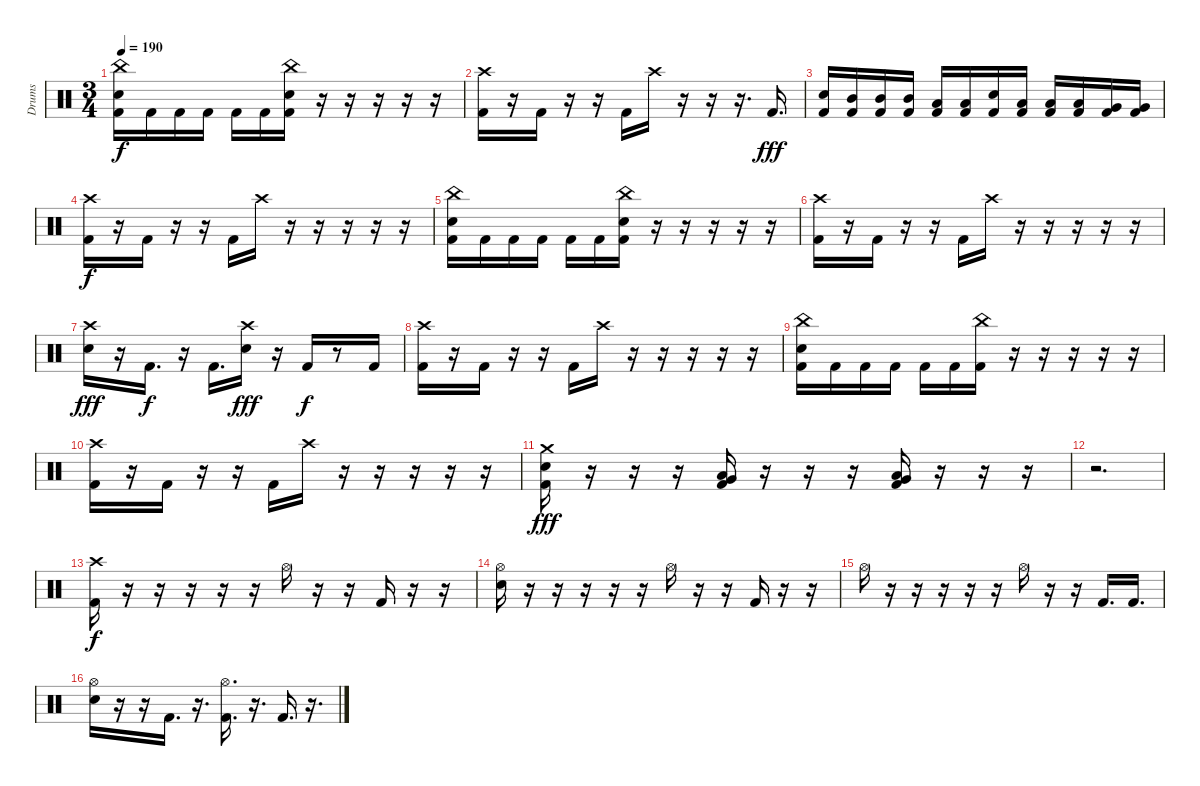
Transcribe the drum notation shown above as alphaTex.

\track ("Drums" "Drums") {instrument percussion}
\staff {score}
\articulation defaults
\ts (3 4)
\tempo 190
\clef neutral
\ks c
("China (hit)" "Electric Snare (hit)" "Kick (hit) 2").16{dy f} "Kick (hit) 2".16 "Kick (hit) 2".16 "Kick (hit) 2".16 "Kick (hit) 2".16 "Kick (hit) 2".16 ("China (hit)" "Electric Snare (hit)" "Kick (hit) 2").16 r.16 r.16 r.16 r.16 r.16 |
("Crash high (hit)" "Kick (hit) 2").16 r.16 "Kick (hit) 2".16 r.16 r.16 "Kick (hit) 2".16 "Crash high (hit)".16 r.16 r.16 r.16{d} "Kick (hit) 2".16{d dy fff} |
("Electric Snare (hit)" "Kick (hit) 2").16 ("Mid Tom (hit)" "Kick (hit) 2").16 ("Mid Tom (hit)" "Kick (hit) 2").16 ("Mid Tom (hit)" "Kick (hit) 2").16 ("Low Tom (hit)" "Kick (hit) 2").16 ("Low Tom (hit)" "Kick (hit) 2").16 ("Electric Snare (hit)" "Kick (hit) 2").16 ("Low Tom (hit)" "Kick (hit) 2").16 ("Low Tom (hit)" "Kick (hit) 2").16 ("Low Tom (hit)" "Kick (hit) 2").16 ("Very Low Tom (hit)" "Kick (hit) 2").16 ("Very Low Tom (hit)" "Kick (hit) 2").16 |
("Crash high (hit)" "Kick (hit) 2").16{dy f} r.16 "Kick (hit) 2".16 r.16 r.16 "Kick (hit) 2".16 "Crash high (hit)".16 r.16 r.16 r.16 r.16 r.16 |
("China (hit)" "Electric Snare (hit)" "Kick (hit) 2").16 "Kick (hit) 2".16 "Kick (hit) 2".16 "Kick (hit) 2".16 "Kick (hit) 2".16 "Kick (hit) 2".16 ("China (hit)" "Electric Snare (hit)" "Kick (hit) 2").16 r.16 r.16 r.16 r.16 r.16 |
("Crash high (hit)" "Kick (hit) 2").16 r.16 "Kick (hit) 2".16 r.16 r.16 "Kick (hit) 2".16 "Crash high (hit)".16 r.16 r.16 r.16 r.16 r.16 |
("Crash high (hit)" "Electric Snare (hit)").16{dy fff} r.16 "Kick (hit) 2".16{d dy f} r.16 "Kick (hit) 2".16{d} ("Crash high (hit)" "Electric Snare (hit)").16{dy fff} r.16 "Kick (hit) 2".16{dy f} r.8 "Kick (hit) 2".16 |
("Crash high (hit)" "Kick (hit) 2").16 r.16 "Kick (hit) 2".16 r.16 r.16 "Kick (hit) 2".16 "Crash high (hit)".16 r.16 r.16 r.16 r.16 r.16 |
("China (hit)" "Electric Snare (hit)" "Kick (hit) 2").16 "Kick (hit) 2".16 "Kick (hit) 2".16 "Kick (hit) 2".16 "Kick (hit) 2".16 "Kick (hit) 2".16 ("China (hit)" "Kick (hit) 2").16 r.16 r.16 r.16 r.16 r.16 |
("Crash high (hit)" "Kick (hit) 2").16 r.16 "Kick (hit) 2".16 r.16 r.16 "Kick (hit) 2".16 "Crash high (hit)".16 r.16 r.16 r.16 r.16 r.16 |
("Crash medium (hit)" "Electric Snare (hit)" "Kick (hit) 2").16{dy fff} r.16 r.16 r.16 ("Very Low Tom (hit)" "Low Floor Tom (hit)" "Kick (hit) 2").16 r.16 r.16 r.16 ("Very Low Tom (hit)" "Low Floor Tom (hit)" "Kick (hit) 2").16 r.16 r.16 r.16 |
r.2{d} |
("Crash high (hit)" "Kick (hit) 2").16{dy f} r.16 r.16 r.16 r.16 r.16 "Hi-Hat (open)".16 r.16 r.16 "Kick (hit) 2".16 r.16 r.16 |
("Hi-Hat (open)" "Electric Snare (hit)").16 r.16 r.16 r.16 r.16 r.16 "Hi-Hat (open)".16 r.16 r.16 "Kick (hit) 2".16 r.16 r.16 |
"Hi-Hat (open)".16 r.16 r.16 r.16 r.16 r.16 "Hi-Hat (open)".16 r.16 r.16 "Kick (hit) 2".16{d} "Kick (hit) 2".16{d} |
("Hi-Hat (open)" "Electric Snare (hit)").16 r.16 r.16 "Kick (hit) 2".16{d} r.16{d} ("Hi-Hat (open)" "Kick (hit) 2").16{d} r.16{d} "Kick (hit) 2".16{d} r.16{d}
